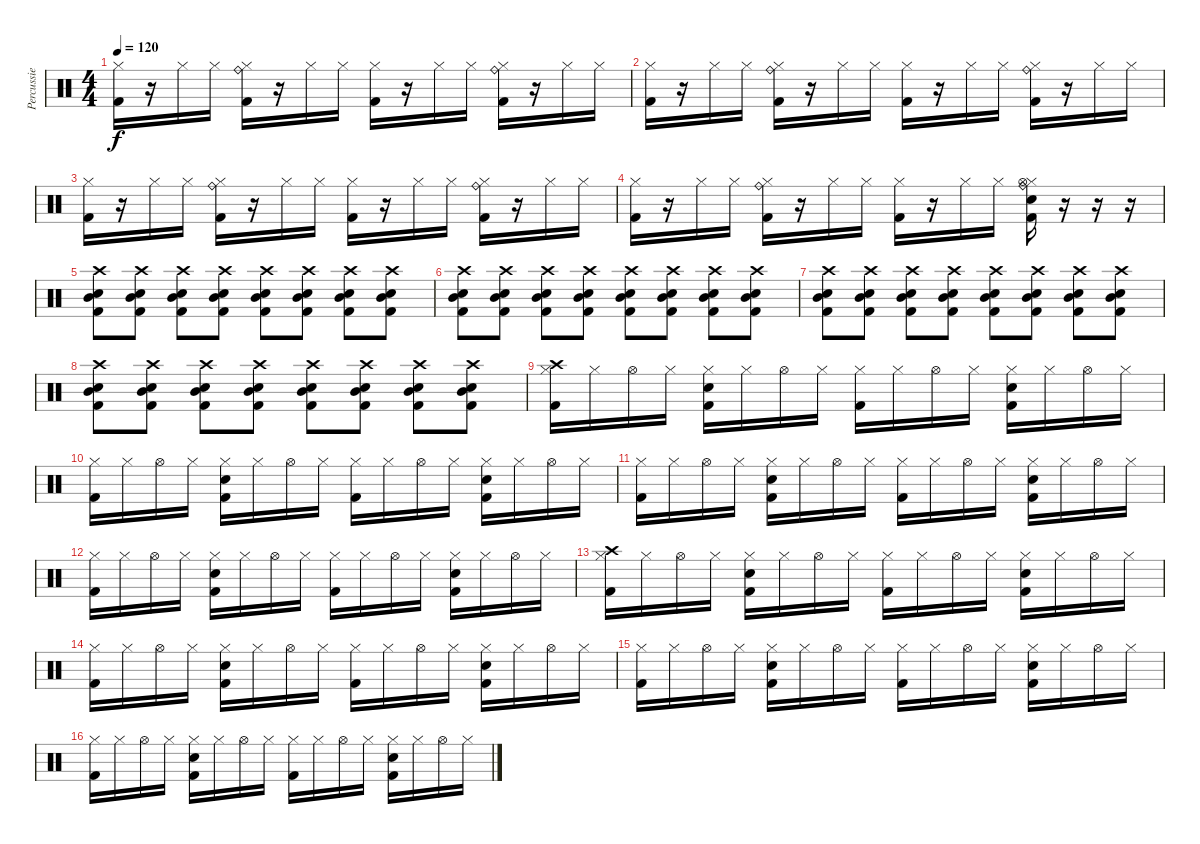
\track ("Percussie" "Percussie") {instrument percussion}
\staff {score}
\articulation defaults
\ts (4 4)
\tempo 120
\clef neutral
\ks c
("Kick (hit) 2" "Hi-Hat (closed)").16{dy f} r.16 "Hi-Hat (closed)".16 "Hi-Hat (closed)".16 ("Kick (hit) 2" "Hi-Hat (closed)" "Ride (bell)").16 r.16 "Hi-Hat (closed)".16 "Hi-Hat (closed)".16 ("Kick (hit) 2" "Hi-Hat (closed)").16 r.16 "Hi-Hat (closed)".16 "Hi-Hat (closed)".16 ("Kick (hit) 2" "Hi-Hat (closed)" "Ride (bell)").16 r.16 "Hi-Hat (closed)".16 "Hi-Hat (closed)".16 |
("Kick (hit) 2" "Hi-Hat (closed)").16 r.16 "Hi-Hat (closed)".16 "Hi-Hat (closed)".16 ("Kick (hit) 2" "Hi-Hat (closed)" "Ride (bell)").16 r.16 "Hi-Hat (closed)".16 "Hi-Hat (closed)".16 ("Kick (hit) 2" "Hi-Hat (closed)").16 r.16 "Hi-Hat (closed)".16 "Hi-Hat (closed)".16 ("Kick (hit) 2" "Hi-Hat (closed)" "Ride (bell)").16 r.16 "Hi-Hat (closed)".16 "Hi-Hat (closed)".16 |
("Kick (hit) 2" "Hi-Hat (closed)").16 r.16 "Hi-Hat (closed)".16 "Hi-Hat (closed)".16 ("Kick (hit) 2" "Hi-Hat (closed)" "Ride (bell)").16 r.16 "Hi-Hat (closed)".16 "Hi-Hat (closed)".16 ("Kick (hit) 2" "Hi-Hat (closed)").16 r.16 "Hi-Hat (closed)".16 "Hi-Hat (closed)".16 ("Kick (hit) 2" "Hi-Hat (closed)" "Ride (bell)").16 r.16 "Hi-Hat (closed)".16 "Hi-Hat (closed)".16 |
("Kick (hit) 2" "Hi-Hat (closed)").16 r.16 "Hi-Hat (closed)".16 "Hi-Hat (closed)".16 ("Kick (hit) 2" "Hi-Hat (closed)" "Ride (bell)").16 r.16 "Hi-Hat (closed)".16 "Hi-Hat (closed)".16 ("Kick (hit) 2" "Hi-Hat (closed)").16 r.16 "Hi-Hat (closed)".16 "Hi-Hat (closed)".16 ("Kick (hit) 2" "Hi-Hat (closed)" "Ride (bell)" "Snare (hit) 2" "Hi-Hat (open)").16 r.16 r.16 r.16 |
("Kick (hit) 2" "Electric Snare (hit)" "Mid Tom (hit)" "Crash high (hit)").8 ("Kick (hit) 2" "Electric Snare (hit)" "Mid Tom (hit)" "Crash high (hit)").8 ("Kick (hit) 2" "Electric Snare (hit)" "Mid Tom (hit)" "Crash high (hit)").8 ("Kick (hit) 2" "Electric Snare (hit)" "Mid Tom (hit)" "Crash high (hit)").8 ("Kick (hit) 2" "Electric Snare (hit)" "Mid Tom (hit)" "Crash high (hit)").8 ("Kick (hit) 2" "Electric Snare (hit)" "Mid Tom (hit)" "Crash high (hit)").8 ("Kick (hit) 2" "Electric Snare (hit)" "Mid Tom (hit)" "Crash high (hit)").8 ("Kick (hit) 2" "Electric Snare (hit)" "Mid Tom (hit)" "Crash high (hit)").8 |
("Kick (hit) 2" "Electric Snare (hit)" "Mid Tom (hit)" "Crash high (hit)").8 ("Kick (hit) 2" "Electric Snare (hit)" "Mid Tom (hit)" "Crash high (hit)").8 ("Kick (hit) 2" "Electric Snare (hit)" "Mid Tom (hit)" "Crash high (hit)").8 ("Kick (hit) 2" "Electric Snare (hit)" "Mid Tom (hit)" "Crash high (hit)").8 ("Kick (hit) 2" "Electric Snare (hit)" "Mid Tom (hit)" "Crash high (hit)").8 ("Kick (hit) 2" "Electric Snare (hit)" "Mid Tom (hit)" "Crash high (hit)").8 ("Kick (hit) 2" "Electric Snare (hit)" "Mid Tom (hit)" "Crash high (hit)").8 ("Kick (hit) 2" "Electric Snare (hit)" "Mid Tom (hit)" "Crash high (hit)").8 |
("Kick (hit) 2" "Electric Snare (hit)" "Mid Tom (hit)" "Crash high (hit)").8 ("Kick (hit) 2" "Electric Snare (hit)" "Mid Tom (hit)" "Crash high (hit)").8 ("Kick (hit) 2" "Electric Snare (hit)" "Mid Tom (hit)" "Crash high (hit)").8 ("Kick (hit) 2" "Electric Snare (hit)" "Mid Tom (hit)" "Crash high (hit)").8 ("Kick (hit) 2" "Electric Snare (hit)" "Mid Tom (hit)" "Crash high (hit)").8 ("Kick (hit) 2" "Electric Snare (hit)" "Mid Tom (hit)" "Crash high (hit)").8 ("Kick (hit) 2" "Electric Snare (hit)" "Mid Tom (hit)" "Crash high (hit)").8 ("Kick (hit) 2" "Electric Snare (hit)" "Mid Tom (hit)" "Crash high (hit)").8 |
("Kick (hit) 2" "Electric Snare (hit)" "Mid Tom (hit)" "Crash high (hit)").8 ("Kick (hit) 2" "Electric Snare (hit)" "Mid Tom (hit)" "Crash high (hit)").8 ("Kick (hit) 2" "Electric Snare (hit)" "Mid Tom (hit)" "Crash high (hit)").8 ("Kick (hit) 2" "Electric Snare (hit)" "Mid Tom (hit)" "Crash high (hit)").8 ("Kick (hit) 2" "Electric Snare (hit)" "Mid Tom (hit)" "Crash high (hit)").8 ("Kick (hit) 2" "Electric Snare (hit)" "Mid Tom (hit)" "Crash high (hit)").8 ("Kick (hit) 2" "Electric Snare (hit)" "Mid Tom (hit)" "Crash high (hit)").8 ("Kick (hit) 2" "Electric Snare (hit)" "Mid Tom (hit)" "Crash high (hit)").8 |
("Kick (hit) 2" "Hi-Hat (closed)" "Crash high (hit)").16 "Hi-Hat (closed)".16 "Hi-Hat (open)".16 "Hi-Hat (closed)".16 ("Kick (hit) 2" "Hi-Hat (closed)" "Snare (hit) 2").16 "Hi-Hat (closed)".16 "Hi-Hat (open)".16 "Hi-Hat (closed)".16 ("Kick (hit) 2" "Hi-Hat (closed)").16 "Hi-Hat (closed)".16 "Hi-Hat (open)".16 "Hi-Hat (closed)".16 ("Kick (hit) 2" "Hi-Hat (closed)" "Snare (hit) 2").16 "Hi-Hat (closed)".16 "Hi-Hat (open)".16 "Hi-Hat (closed)".16 |
("Kick (hit) 2" "Hi-Hat (closed)").16 "Hi-Hat (closed)".16 "Hi-Hat (open)".16 "Hi-Hat (closed)".16 ("Kick (hit) 2" "Hi-Hat (closed)" "Snare (hit) 2").16 "Hi-Hat (closed)".16 "Hi-Hat (open)".16 "Hi-Hat (closed)".16 ("Kick (hit) 2" "Hi-Hat (closed)").16 "Hi-Hat (closed)".16 "Hi-Hat (open)".16 "Hi-Hat (closed)".16 ("Kick (hit) 2" "Hi-Hat (closed)" "Snare (hit) 2").16 "Hi-Hat (closed)".16 "Hi-Hat (open)".16 "Hi-Hat (closed)".16 |
("Kick (hit) 2" "Hi-Hat (closed)").16 "Hi-Hat (closed)".16 "Hi-Hat (open)".16 "Hi-Hat (closed)".16 ("Kick (hit) 2" "Hi-Hat (closed)" "Snare (hit) 2").16 "Hi-Hat (closed)".16 "Hi-Hat (open)".16 "Hi-Hat (closed)".16 ("Kick (hit) 2" "Hi-Hat (closed)").16 "Hi-Hat (closed)".16 "Hi-Hat (open)".16 "Hi-Hat (closed)".16 ("Kick (hit) 2" "Hi-Hat (closed)" "Snare (hit) 2").16 "Hi-Hat (closed)".16 "Hi-Hat (open)".16 "Hi-Hat (closed)".16 |
("Kick (hit) 2" "Hi-Hat (closed)").16 "Hi-Hat (closed)".16 "Hi-Hat (open)".16 "Hi-Hat (closed)".16 ("Kick (hit) 2" "Hi-Hat (closed)" "Snare (hit) 2").16 "Hi-Hat (closed)".16 "Hi-Hat (open)".16 "Hi-Hat (closed)".16 ("Kick (hit) 2" "Hi-Hat (closed)").16 "Hi-Hat (closed)".16 "Hi-Hat (open)".16 "Hi-Hat (closed)".16 ("Kick (hit) 2" "Hi-Hat (closed)" "Snare (hit) 2").16 "Hi-Hat (closed)".16 "Hi-Hat (open)".16 "Hi-Hat (closed)".16 |
("Kick (hit) 2" "Hi-Hat (closed)" "Crash high (hit)").16 "Hi-Hat (closed)".16 "Hi-Hat (open)".16 "Hi-Hat (closed)".16 ("Kick (hit) 2" "Hi-Hat (closed)" "Snare (hit) 2").16 "Hi-Hat (closed)".16 "Hi-Hat (open)".16 "Hi-Hat (closed)".16 ("Kick (hit) 2" "Hi-Hat (closed)").16 "Hi-Hat (closed)".16 "Hi-Hat (open)".16 "Hi-Hat (closed)".16 ("Kick (hit) 2" "Hi-Hat (closed)" "Snare (hit) 2").16 "Hi-Hat (closed)".16 "Hi-Hat (open)".16 "Hi-Hat (closed)".16 |
("Kick (hit) 2" "Hi-Hat (closed)").16 "Hi-Hat (closed)".16 "Hi-Hat (open)".16 "Hi-Hat (closed)".16 ("Kick (hit) 2" "Hi-Hat (closed)" "Snare (hit) 2").16 "Hi-Hat (closed)".16 "Hi-Hat (open)".16 "Hi-Hat (closed)".16 ("Kick (hit) 2" "Hi-Hat (closed)").16 "Hi-Hat (closed)".16 "Hi-Hat (open)".16 "Hi-Hat (closed)".16 ("Kick (hit) 2" "Hi-Hat (closed)" "Snare (hit) 2").16 "Hi-Hat (closed)".16 "Hi-Hat (open)".16 "Hi-Hat (closed)".16 |
("Kick (hit) 2" "Hi-Hat (closed)").16 "Hi-Hat (closed)".16 "Hi-Hat (open)".16 "Hi-Hat (closed)".16 ("Kick (hit) 2" "Hi-Hat (closed)" "Snare (hit) 2").16 "Hi-Hat (closed)".16 "Hi-Hat (open)".16 "Hi-Hat (closed)".16 ("Kick (hit) 2" "Hi-Hat (closed)").16 "Hi-Hat (closed)".16 "Hi-Hat (open)".16 "Hi-Hat (closed)".16 ("Kick (hit) 2" "Hi-Hat (closed)" "Snare (hit) 2").16 "Hi-Hat (closed)".16 "Hi-Hat (open)".16 "Hi-Hat (closed)".16 |
("Kick (hit) 2" "Hi-Hat (closed)").16 "Hi-Hat (closed)".16 "Hi-Hat (open)".16 "Hi-Hat (closed)".16 ("Kick (hit) 2" "Hi-Hat (closed)" "Snare (hit) 2").16 "Hi-Hat (closed)".16 "Hi-Hat (open)".16 "Hi-Hat (closed)".16 ("Kick (hit) 2" "Hi-Hat (closed)").16 "Hi-Hat (closed)".16 "Hi-Hat (open)".16 "Hi-Hat (closed)".16 ("Kick (hit) 2" "Hi-Hat (closed)" "Snare (hit) 2").16 "Hi-Hat (closed)".16 "Hi-Hat (open)".16 "Hi-Hat (closed)".16
